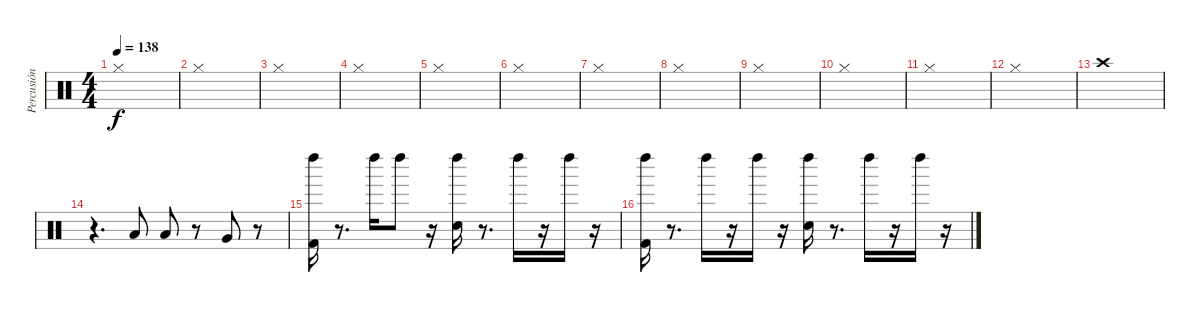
\track ("Percusión" "Percusión") {instrument percussion}
\staff {score}
\articulation defaults
\ts (4 4)
\tempo 138
\clef neutral
\ks c "Hi-Hat (closed)".1{dy f}
|
"Hi-Hat (closed)".1 |
"Hi-Hat (closed)".1 |
"Hi-Hat (closed)".1 |
"Hi-Hat (closed)".1 |
"Hi-Hat (closed)".1 |
"Hi-Hat (closed)".1 |
"Hi-Hat (closed)".1 |
"Hi-Hat (closed)".1 |
"Hi-Hat (closed)".1 |
"Hi-Hat (closed)".1 |
"Hi-Hat (closed)".1 |
"Crash high (hit)".1 |
r.4{d} "Low Tom (hit)".8 "Low Tom (hit)".8 r.8 "Very Low Tom (hit)".8 r.8 |
("Kick (hit) 2" "Left Maraca (hit)").16 r.8{d} "Left Maraca (hit)".16 "Left Maraca (hit)".8 r.16 ("Left Maraca (hit)" "Electric Snare (hit)").16 r.8{d} "Left Maraca (hit)".16 r.16 "Left Maraca (hit)".16 r.16 |
("Kick (hit) 2" "Left Maraca (hit)").16 r.8{d} "Left Maraca (hit)".16 r.16 "Left Maraca (hit)".16 r.16 ("Left Maraca (hit)" "Electric Snare (hit)").16 r.8{d} "Left Maraca (hit)".16 r.16 "Left Maraca (hit)".16 r.16
